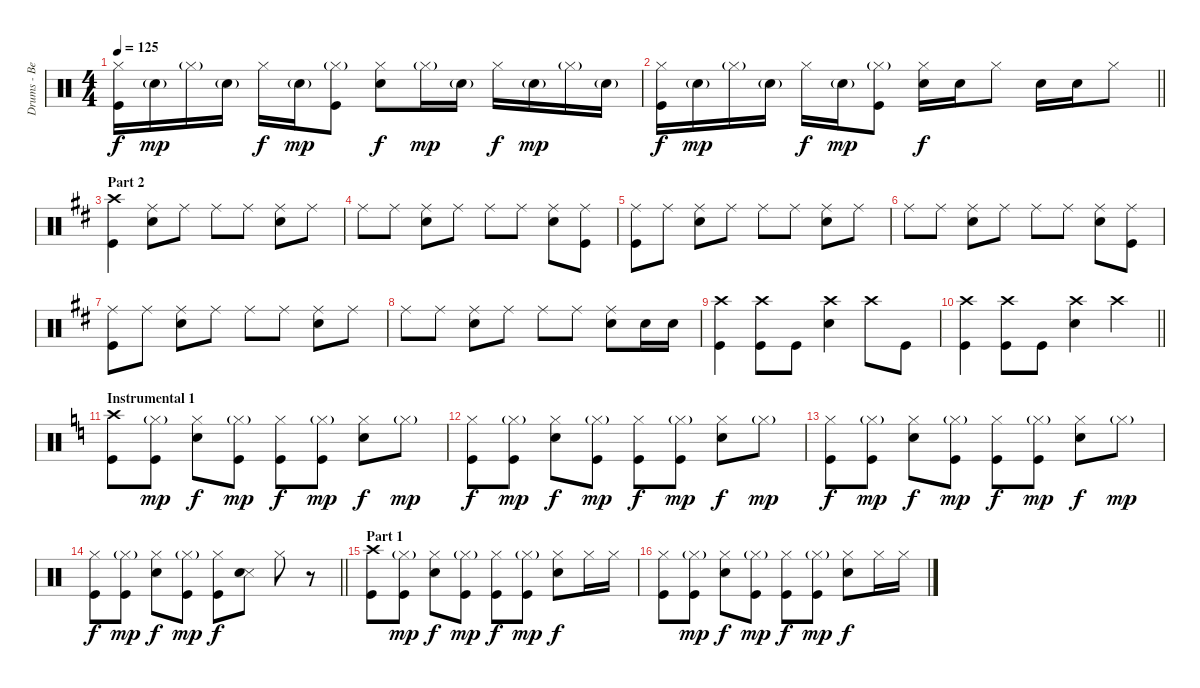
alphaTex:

\track ("Drums - Ben Johnston" "Drums - Be") {instrument percussion}
\staff {score}
\articulation defaults
\ts (4 4)
\tempo 125
\clef neutral
\ks c
("Hi-Hat (closed)" "Kick (hit)").16{dy f} "Snare (hit) 2"{g}.16{dy mp} "Hi-Hat (closed)"{g}.16 "Snare (hit) 2"{g}.16 "Hi-Hat (closed)".16{dy f} "Snare (hit) 2"{g}.16{dy mp} ("Hi-Hat (closed)"{g} "Kick (hit)").8 ("Hi-Hat (closed)" "Snare (hit) 2").8{dy f} "Hi-Hat (closed)"{g}.16{dy mp} "Snare (hit) 2"{g}.16 "Hi-Hat (closed)".16{dy f} "Snare (hit) 2"{g}.16{dy mp} "Hi-Hat (closed)"{g}.16 "Snare (hit) 2"{g}.16 |
\barLineRight lightlight
("Hi-Hat (closed)" "Kick (hit)").16{dy f} "Snare (hit) 2"{g}.16{dy mp} "Hi-Hat (closed)"{g}.16 "Snare (hit) 2"{g}.16 "Hi-Hat (closed)".16{dy f} "Snare (hit) 2"{g}.16{dy mp} ("Hi-Hat (closed)"{g} "Kick (hit)").8 ("Hi-Hat (closed)" "Snare (hit) 2").16{dy f} "Snare (hit) 2".16 "Hi-Hat (closed)".8 "Snare (hit) 2".16 "Snare (hit) 2".16 "Hi-Hat (closed)".8 |
\section ("" "Part 2")
\ks d
("Crash high (hit)" "Kick (hit)").4 ("Ride (middle)" "Snare (hit) 2").8 "Ride (middle)".8 "Ride (middle)".8 "Ride (middle)".8 ("Ride (middle)" "Snare (hit) 2").8 "Ride (middle)".8 |
"Ride (middle)".8 "Ride (middle)".8 ("Ride (middle)" "Snare (hit) 2").8 "Ride (middle)".8 "Ride (middle)".8 "Ride (middle)".8 ("Ride (middle)" "Snare (hit) 2").8 ("Ride (middle)" "Kick (hit)").8 |
("Ride (middle)" "Kick (hit)").8 "Ride (middle)".8 ("Ride (middle)" "Snare (hit) 2").8 "Ride (middle)".8 "Ride (middle)".8 "Ride (middle)".8 ("Ride (middle)" "Snare (hit) 2").8 "Ride (middle)".8 |
"Ride (middle)".8 "Ride (middle)".8 ("Ride (middle)" "Snare (hit) 2").8 "Ride (middle)".8 "Ride (middle)".8 "Ride (middle)".8 ("Ride (middle)" "Snare (hit) 2").8 ("Ride (middle)" "Kick (hit)").8 |
("Ride (middle)" "Kick (hit)").8 "Ride (middle)".8 ("Ride (middle)" "Snare (hit) 2").8 "Ride (middle)".8 "Ride (middle)".8 "Ride (middle)".8 ("Ride (middle)" "Snare (hit) 2").8 "Ride (middle)".8 |
"Ride (middle)".8 "Ride (middle)".8 ("Ride (middle)" "Snare (hit) 2").8 "Ride (middle)".8 "Ride (middle)".8 "Ride (middle)".8 ("Ride (middle)" "Snare (hit) 2").8 "Snare (hit) 2".16 "Snare (hit) 2".16 |
("Crash high (hit)" "Kick (hit)").4 ("Crash high (hit)" "Kick (hit)").8 "Kick (hit)".8 ("Crash high (hit)" "Snare (hit) 2").4 "Crash high (hit)".8 "Kick (hit)".8 |
\barLineRight lightlight
("Crash high (hit)" "Kick (hit)").4 ("Crash high (hit)" "Kick (hit)").8 "Kick (hit)".8 ("Crash high (hit)" "Snare (hit) 2").4 "Crash high (hit)".4 |
\section ("" "Instrumental 1")
\ks c
("Crash high (hit)" "Kick (hit)").8 ("Hi-Hat (closed)"{g} "Kick (hit)").8{dy mp} ("Hi-Hat (closed)" "Snare (hit) 2").8{dy f} ("Hi-Hat (closed)"{g} "Kick (hit)").8{dy mp} ("Hi-Hat (closed)" "Kick (hit)").8{dy f} ("Hi-Hat (closed)"{g} "Kick (hit)").8{dy mp} ("Hi-Hat (closed)" "Snare (hit) 2").8{dy f} "Hi-Hat (closed)"{g}.8{dy mp} |
("Hi-Hat (closed)" "Kick (hit)").8{dy f} ("Hi-Hat (closed)"{g} "Kick (hit)").8{dy mp} ("Hi-Hat (closed)" "Snare (hit) 2").8{dy f} ("Hi-Hat (closed)"{g} "Kick (hit)").8{dy mp} ("Hi-Hat (closed)" "Kick (hit)").8{dy f} ("Hi-Hat (closed)"{g} "Kick (hit)").8{dy mp} ("Hi-Hat (closed)" "Snare (hit) 2").8{dy f} "Hi-Hat (closed)"{g}.8{dy mp} |
("Hi-Hat (closed)" "Kick (hit)").8{dy f} ("Hi-Hat (closed)"{g} "Kick (hit)").8{dy mp} ("Hi-Hat (closed)" "Snare (hit) 2").8{dy f} ("Hi-Hat (closed)"{g} "Kick (hit)").8{dy mp} ("Hi-Hat (closed)" "Kick (hit)").8{dy f} ("Hi-Hat (closed)"{g} "Kick (hit)").8{dy mp} ("Hi-Hat (closed)" "Snare (hit) 2").8{dy f} "Hi-Hat (closed)"{g}.8{dy mp} |
\barLineRight lightlight
("Hi-Hat (closed)" "Kick (hit)").8{dy f} ("Hi-Hat (closed)"{g} "Kick (hit)").8{dy mp} ("Hi-Hat (closed)" "Snare (hit) 2").8{dy f} ("Hi-Hat (closed)"{g} "Kick (hit)").8{dy mp} ("Hi-Hat (closed)" "Kick (hit)").8{dy f} ("Snare (side stick) 3" "Snare (hit) 2").8 "Hi-Hat (closed)".8 r.8 |
\section ("" "Part 1")
("Crash high (hit)" "Kick (hit)").8 ("Hi-Hat (closed)"{g} "Kick (hit)").8{dy mp} ("Hi-Hat (closed)" "Snare (hit) 2").8{dy f} ("Hi-Hat (closed)"{g} "Kick (hit)").8{dy mp} ("Hi-Hat (closed)" "Kick (hit)").8{dy f} ("Hi-Hat (closed)"{g} "Kick (hit)").8{dy mp} ("Hi-Hat (closed)" "Snare (hit) 2").8{dy f} "Hi-Hat (closed)".16 "Hi-Hat (closed)".16 |
("Hi-Hat (closed)" "Kick (hit)").8 ("Hi-Hat (closed)"{g} "Kick (hit)").8{dy mp} ("Hi-Hat (closed)" "Snare (hit) 2").8{dy f} ("Hi-Hat (closed)"{g} "Kick (hit)").8{dy mp} ("Hi-Hat (closed)" "Kick (hit)").8{dy f} ("Hi-Hat (closed)"{g} "Kick (hit)").8{dy mp} ("Hi-Hat (closed)" "Snare (hit) 2").8{dy f} "Hi-Hat (closed)".16 "Hi-Hat (closed)".16
